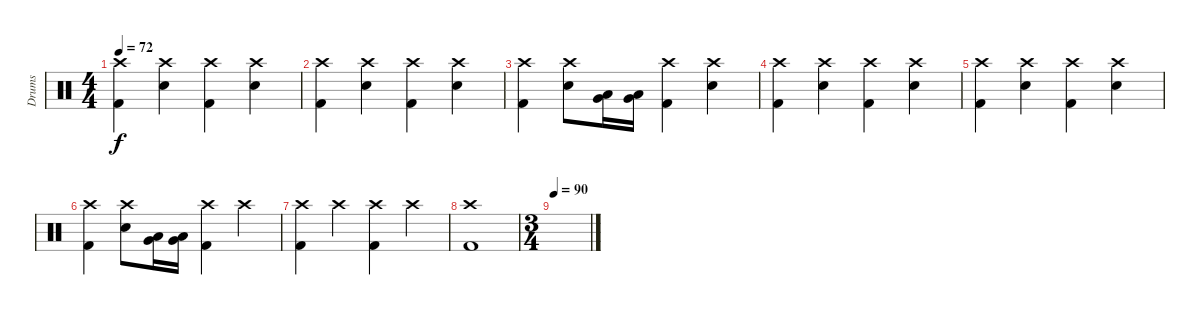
\track ("Drums" "Drums") {instrument percussion}
\staff {score}
\articulation defaults
\ts (4 4)
\tempo 72
\clef neutral
\ks c
("Crash high (hit)" "Kick (hit) 2").4{dy f} ("Crash high (hit)" "Snare (hit) 2").4 ("Crash high (hit)" "Kick (hit) 2").4 ("Crash high (hit)" "Snare (hit) 2").4 |
("Crash high (hit)" "Kick (hit) 2").4 ("Crash high (hit)" "Snare (hit) 2").4 ("Crash high (hit)" "Kick (hit) 2").4 ("Crash high (hit)" "Snare (hit) 2").4 |
("Crash high (hit)" "Kick (hit) 2").4 ("Crash high (hit)" "Snare (hit) 2").8 ("Low Floor Tom (hit)" "Very Low Tom (hit)").16 ("Low Floor Tom (hit)" "Very Low Tom (hit)").16 ("Crash high (hit)" "Kick (hit) 2").4 ("Crash high (hit)" "Snare (hit) 2").4 |
("Crash high (hit)" "Kick (hit) 2").4 ("Crash high (hit)" "Snare (hit) 2").4 ("Crash high (hit)" "Kick (hit) 2").4 ("Crash high (hit)" "Snare (hit) 2").4 |
("Crash high (hit)" "Kick (hit) 2").4 ("Crash high (hit)" "Snare (hit) 2").4 ("Crash high (hit)" "Kick (hit) 2").4 ("Crash high (hit)" "Snare (hit) 2").4 |
("Crash high (hit)" "Kick (hit) 2").4 ("Crash high (hit)" "Snare (hit) 2").8 ("Low Floor Tom (hit)" "Very Low Tom (hit)").16 ("Low Floor Tom (hit)" "Very Low Tom (hit)").16 ("Crash high (hit)" "Kick (hit) 2").4 "Crash high (hit)".4 |
("Crash high (hit)" "Kick (hit) 2").4 "Crash high (hit)".4 ("Crash high (hit)" "Kick (hit) 2").4 "Crash high (hit)".4 |
("Crash high (hit)" "Kick (hit) 2").1 |
\ts (3 4)
\tempo 90
